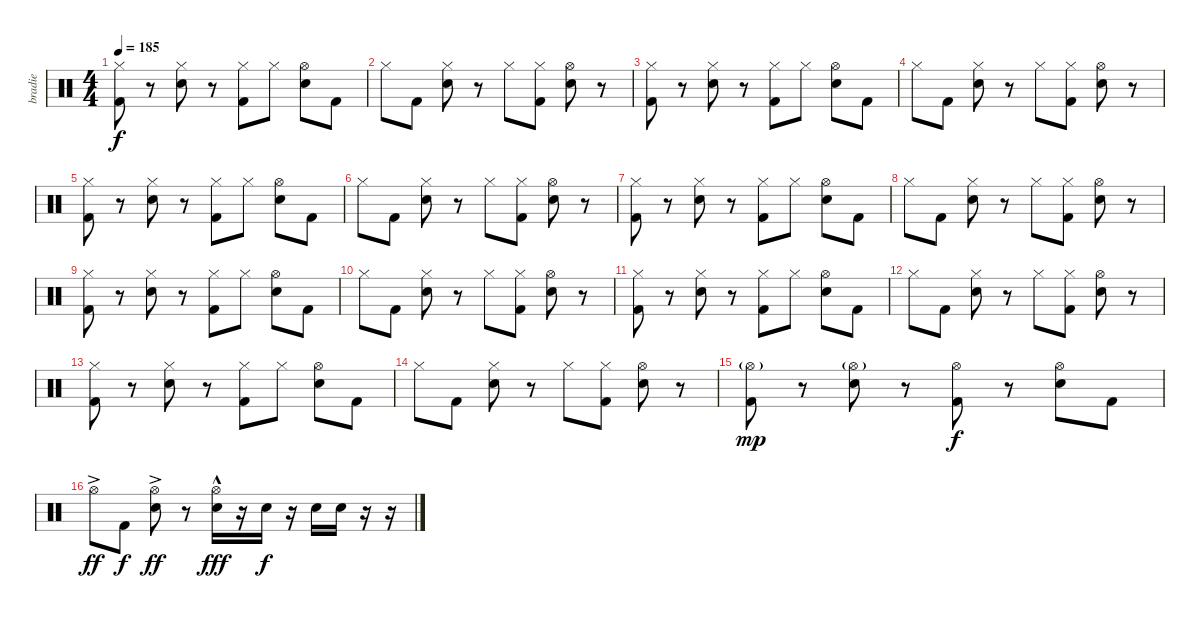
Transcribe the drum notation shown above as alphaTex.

\track ("bradie" "bradie") {instrument percussion}
\staff {score}
\articulation defaults
\ts (4 4)
\tempo 185
\clef neutral
\ks c
("Hi-Hat (closed)" "Kick (hit) 2").8{dy f} r.8 ("Hi-Hat (closed)" "Electric Snare (hit)").8 r.8 ("Hi-Hat (closed)" "Kick (hit) 2").8 "Hi-Hat (closed)".8 ("Hi-Hat (open)" "Electric Snare (hit)").8 "Kick (hit) 2".8 |
"Hi-Hat (closed)".8 "Kick (hit) 2".8 ("Hi-Hat (closed)" "Electric Snare (hit)").8 r.8 "Hi-Hat (closed)".8 ("Hi-Hat (closed)" "Kick (hit) 2").8 ("Hi-Hat (open)" "Electric Snare (hit)").8 r.8 |
("Hi-Hat (closed)" "Kick (hit) 2").8 r.8 ("Hi-Hat (closed)" "Electric Snare (hit)").8 r.8 ("Hi-Hat (closed)" "Kick (hit) 2").8 "Hi-Hat (closed)".8 ("Hi-Hat (open)" "Electric Snare (hit)").8 "Kick (hit) 2".8 |
"Hi-Hat (closed)".8 "Kick (hit) 2".8 ("Hi-Hat (closed)" "Electric Snare (hit)").8 r.8 "Hi-Hat (closed)".8 ("Hi-Hat (closed)" "Kick (hit) 2").8 ("Hi-Hat (open)" "Electric Snare (hit)").8 r.8 |
("Hi-Hat (closed)" "Kick (hit) 2").8 r.8 ("Hi-Hat (closed)" "Electric Snare (hit)").8 r.8 ("Hi-Hat (closed)" "Kick (hit) 2").8 "Hi-Hat (closed)".8 ("Hi-Hat (open)" "Electric Snare (hit)").8 "Kick (hit) 2".8 |
"Hi-Hat (closed)".8 "Kick (hit) 2".8 ("Hi-Hat (closed)" "Electric Snare (hit)").8 r.8 "Hi-Hat (closed)".8 ("Hi-Hat (closed)" "Kick (hit) 2").8 ("Hi-Hat (open)" "Electric Snare (hit)").8 r.8 |
("Hi-Hat (closed)" "Kick (hit) 2").8 r.8 ("Hi-Hat (closed)" "Electric Snare (hit)").8 r.8 ("Hi-Hat (closed)" "Kick (hit) 2").8 "Hi-Hat (closed)".8 ("Hi-Hat (open)" "Electric Snare (hit)").8 "Kick (hit) 2".8 |
"Hi-Hat (closed)".8 "Kick (hit) 2".8 ("Hi-Hat (closed)" "Electric Snare (hit)").8 r.8 "Hi-Hat (closed)".8 ("Hi-Hat (closed)" "Kick (hit) 2").8 ("Hi-Hat (open)" "Electric Snare (hit)").8 r.8 |
("Hi-Hat (closed)" "Kick (hit) 2").8 r.8 ("Hi-Hat (closed)" "Electric Snare (hit)").8 r.8 ("Hi-Hat (closed)" "Kick (hit) 2").8 "Hi-Hat (closed)".8 ("Hi-Hat (open)" "Electric Snare (hit)").8 "Kick (hit) 2".8 |
"Hi-Hat (closed)".8 "Kick (hit) 2".8 ("Hi-Hat (closed)" "Electric Snare (hit)").8 r.8 "Hi-Hat (closed)".8 ("Hi-Hat (closed)" "Kick (hit) 2").8 ("Hi-Hat (open)" "Electric Snare (hit)").8 r.8 |
("Hi-Hat (closed)" "Kick (hit) 2").8 r.8 ("Hi-Hat (closed)" "Electric Snare (hit)").8 r.8 ("Hi-Hat (closed)" "Kick (hit) 2").8 "Hi-Hat (closed)".8 ("Hi-Hat (open)" "Electric Snare (hit)").8 "Kick (hit) 2".8 |
"Hi-Hat (closed)".8 "Kick (hit) 2".8 ("Hi-Hat (closed)" "Electric Snare (hit)").8 r.8 "Hi-Hat (closed)".8 ("Hi-Hat (closed)" "Kick (hit) 2").8 ("Hi-Hat (open)" "Electric Snare (hit)").8 r.8 |
("Hi-Hat (closed)" "Kick (hit) 2").8 r.8 ("Hi-Hat (closed)" "Electric Snare (hit)").8 r.8 ("Hi-Hat (closed)" "Kick (hit) 2").8 "Hi-Hat (closed)".8 ("Hi-Hat (open)" "Electric Snare (hit)").8 "Kick (hit) 2".8 |
"Hi-Hat (closed)".8 "Kick (hit) 2".8 ("Hi-Hat (closed)" "Electric Snare (hit)").8 r.8 "Hi-Hat (closed)".8 ("Hi-Hat (closed)" "Kick (hit) 2").8 ("Hi-Hat (open)" "Electric Snare (hit)").8 r.8 |
("Hi-Hat (open)"{g} "Kick (hit) 2").8{dy mp} r.8 ("Hi-Hat (open)"{g} "Electric Snare (hit)").8 r.8 ("Hi-Hat (open)" "Kick (hit) 2").8{dy f} r.8 ("Hi-Hat (open)" "Electric Snare (hit)").8 "Kick (hit) 2".8 |
"Hi-Hat (open)"{ac}.8{dy ff} "Kick (hit) 2".8{dy f} ("Hi-Hat (open)"{ac} "Electric Snare (hit)").8{dy ff} r.8 ("Hi-Hat (open)"{hac} "Electric Snare (hit)").16{dy fff} r.16 "Electric Snare (hit)".16{dy f} r.16 "Electric Snare (hit)".16 "Electric Snare (hit)".16 r.16 r.16
